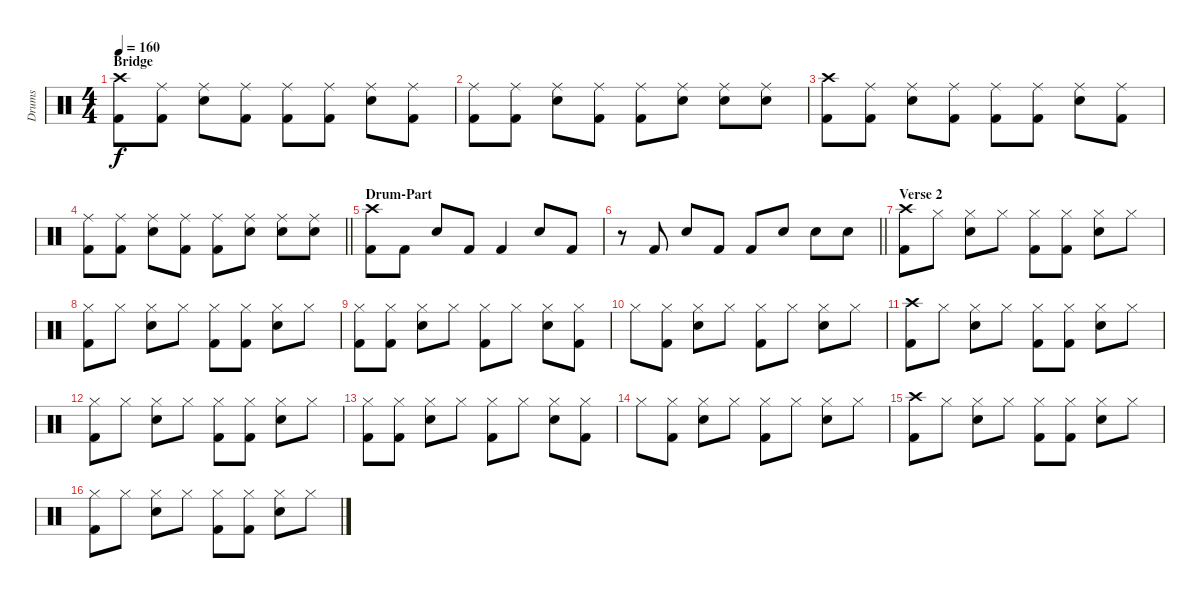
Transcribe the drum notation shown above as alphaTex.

\track ("Drums" "Drums") {instrument percussion}
\staff {score}
\articulation defaults
\ts (4 4)
\section ("" "Bridge")
\tempo 160
\clef neutral
\ks c
("Crash high (hit)" "Kick (hit) 2").8{dy f} ("Ride (middle)" "Kick (hit) 2").8 ("Ride (middle)" "Electric Snare (hit)").8 ("Ride (middle)" "Kick (hit) 2").8 ("Ride (middle)" "Kick (hit) 2").8 ("Ride (middle)" "Kick (hit) 2").8 ("Ride (middle)" "Electric Snare (hit)").8 ("Ride (middle)" "Kick (hit) 2").8 |
("Ride (middle)" "Kick (hit) 2").8 ("Ride (middle)" "Kick (hit) 2").8 ("Ride (middle)" "Electric Snare (hit)").8 ("Ride (middle)" "Kick (hit) 2").8 ("Ride (middle)" "Kick (hit) 2").8 ("Ride (middle)" "Electric Snare (hit)").8 ("Ride (middle)" "Electric Snare (hit)").8 ("Ride (middle)" "Electric Snare (hit)").8 |
("Crash high (hit)" "Kick (hit) 2").8 ("Ride (middle)" "Kick (hit) 2").8 ("Ride (middle)" "Electric Snare (hit)").8 ("Ride (middle)" "Kick (hit) 2").8 ("Ride (middle)" "Kick (hit) 2").8 ("Ride (middle)" "Kick (hit) 2").8 ("Ride (middle)" "Electric Snare (hit)").8 ("Ride (middle)" "Kick (hit) 2").8 |
\barLineRight lightlight
("Ride (middle)" "Kick (hit) 2").8 ("Ride (middle)" "Kick (hit) 2").8 ("Ride (middle)" "Electric Snare (hit)").8 ("Ride (middle)" "Kick (hit) 2").8 ("Ride (middle)" "Kick (hit) 2").8 ("Ride (middle)" "Electric Snare (hit)").8 ("Ride (middle)" "Electric Snare (hit)").8 ("Ride (middle)" "Electric Snare (hit)").8 |
\section ("" "Drum-Part")
("Crash high (hit)" "Kick (hit) 2").8 "Kick (hit) 2".8 "Electric Snare (hit)".8 "Kick (hit) 2".8 "Kick (hit) 2".4 "Electric Snare (hit)".8 "Kick (hit) 2".8 |
\barLineRight lightlight
r.8 "Kick (hit) 2".8 "Electric Snare (hit)".8 "Kick (hit) 2".8 "Kick (hit) 2".8 "Electric Snare (hit)".8 "Electric Snare (hit)".8 "Electric Snare (hit)".8 |
\section ("" "Verse 2")
("Crash high (hit)" "Kick (hit) 2").8 "Hi-Hat (closed)".8 ("Hi-Hat (closed)" "Electric Snare (hit)").8 "Hi-Hat (closed)".8 ("Hi-Hat (closed)" "Kick (hit) 2").8 ("Hi-Hat (closed)" "Kick (hit) 2").8 ("Hi-Hat (closed)" "Electric Snare (hit)").8 "Hi-Hat (closed)".8 |
("Hi-Hat (closed)" "Kick (hit) 2").8 "Hi-Hat (closed)".8 ("Hi-Hat (closed)" "Electric Snare (hit)").8 "Hi-Hat (closed)".8 ("Hi-Hat (closed)" "Kick (hit) 2").8 ("Hi-Hat (closed)" "Kick (hit) 2").8 ("Hi-Hat (closed)" "Electric Snare (hit)").8 "Hi-Hat (closed)".8 |
("Hi-Hat (closed)" "Kick (hit) 2").8 ("Hi-Hat (closed)" "Kick (hit) 2").8 ("Hi-Hat (closed)" "Electric Snare (hit)").8 "Hi-Hat (closed)".8 ("Hi-Hat (closed)" "Kick (hit) 2").8 "Hi-Hat (closed)".8 ("Hi-Hat (closed)" "Electric Snare (hit)").8 ("Hi-Hat (closed)" "Kick (hit) 2").8 |
"Hi-Hat (closed)".8 ("Hi-Hat (closed)" "Kick (hit) 2").8 ("Hi-Hat (closed)" "Electric Snare (hit)").8 "Hi-Hat (closed)".8 ("Hi-Hat (closed)" "Kick (hit) 2").8 "Hi-Hat (closed)".8 ("Hi-Hat (closed)" "Electric Snare (hit)").8 "Hi-Hat (closed)".8 |
("Crash high (hit)" "Kick (hit) 2").8 "Hi-Hat (closed)".8 ("Hi-Hat (closed)" "Electric Snare (hit)").8 "Hi-Hat (closed)".8 ("Hi-Hat (closed)" "Kick (hit) 2").8 ("Hi-Hat (closed)" "Kick (hit) 2").8 ("Hi-Hat (closed)" "Electric Snare (hit)").8 "Hi-Hat (closed)".8 |
("Hi-Hat (closed)" "Kick (hit) 2").8 "Hi-Hat (closed)".8 ("Hi-Hat (closed)" "Electric Snare (hit)").8 "Hi-Hat (closed)".8 ("Hi-Hat (closed)" "Kick (hit) 2").8 ("Hi-Hat (closed)" "Kick (hit) 2").8 ("Hi-Hat (closed)" "Electric Snare (hit)").8 "Hi-Hat (closed)".8 |
("Hi-Hat (closed)" "Kick (hit) 2").8 ("Hi-Hat (closed)" "Kick (hit) 2").8 ("Hi-Hat (closed)" "Electric Snare (hit)").8 "Hi-Hat (closed)".8 ("Hi-Hat (closed)" "Kick (hit) 2").8 "Hi-Hat (closed)".8 ("Hi-Hat (closed)" "Electric Snare (hit)").8 ("Hi-Hat (closed)" "Kick (hit) 2").8 |
"Hi-Hat (closed)".8 ("Hi-Hat (closed)" "Kick (hit) 2").8 ("Hi-Hat (closed)" "Electric Snare (hit)").8 "Hi-Hat (closed)".8 ("Hi-Hat (closed)" "Kick (hit) 2").8 "Hi-Hat (closed)".8 ("Hi-Hat (closed)" "Electric Snare (hit)").8 "Hi-Hat (closed)".8 |
("Crash high (hit)" "Kick (hit) 2").8 "Hi-Hat (closed)".8 ("Hi-Hat (closed)" "Electric Snare (hit)").8 "Hi-Hat (closed)".8 ("Hi-Hat (closed)" "Kick (hit) 2").8 ("Hi-Hat (closed)" "Kick (hit) 2").8 ("Hi-Hat (closed)" "Electric Snare (hit)").8 "Hi-Hat (closed)".8 |
("Hi-Hat (closed)" "Kick (hit) 2").8 "Hi-Hat (closed)".8 ("Hi-Hat (closed)" "Electric Snare (hit)").8 "Hi-Hat (closed)".8 ("Hi-Hat (closed)" "Kick (hit) 2").8 ("Hi-Hat (closed)" "Kick (hit) 2").8 ("Hi-Hat (closed)" "Electric Snare (hit)").8 "Hi-Hat (closed)".8
